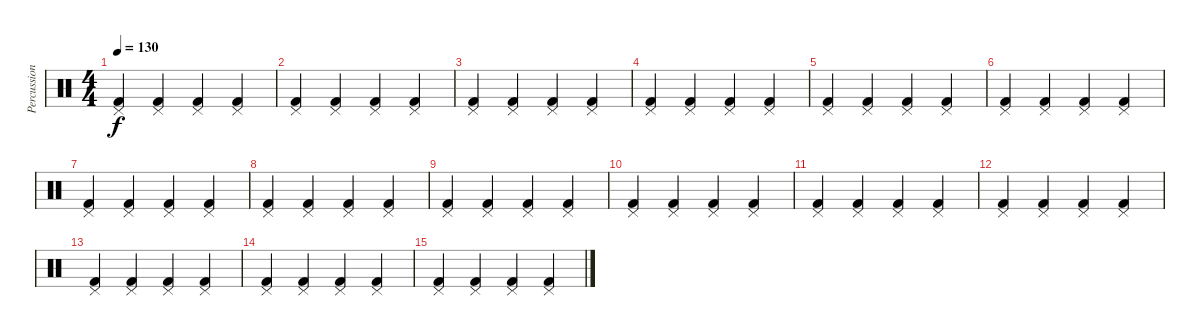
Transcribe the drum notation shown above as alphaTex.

\track ("Percussion" "Percussion") {instrument percussion}
\staff {score}
\articulation defaults
\ts (4 4)
\tempo 130
\clef neutral
\ks c
("Kick (hit) 2" "Pedal Hi-Hat (hit)").4{dy f} ("Kick (hit) 2" "Pedal Hi-Hat (hit)").4 ("Kick (hit) 2" "Pedal Hi-Hat (hit)").4 ("Kick (hit) 2" "Pedal Hi-Hat (hit)").4 |
("Kick (hit) 2" "Pedal Hi-Hat (hit)").4 ("Kick (hit) 2" "Pedal Hi-Hat (hit)").4 ("Kick (hit) 2" "Pedal Hi-Hat (hit)").4 ("Kick (hit) 2" "Pedal Hi-Hat (hit)").4 |
("Kick (hit) 2" "Pedal Hi-Hat (hit)").4 ("Kick (hit) 2" "Pedal Hi-Hat (hit)").4 ("Kick (hit) 2" "Pedal Hi-Hat (hit)").4 ("Kick (hit) 2" "Pedal Hi-Hat (hit)").4 |
("Kick (hit) 2" "Pedal Hi-Hat (hit)").4 ("Kick (hit) 2" "Pedal Hi-Hat (hit)").4 ("Kick (hit) 2" "Pedal Hi-Hat (hit)").4 ("Kick (hit) 2" "Pedal Hi-Hat (hit)").4 |
("Kick (hit) 2" "Pedal Hi-Hat (hit)").4 ("Kick (hit) 2" "Pedal Hi-Hat (hit)").4 ("Kick (hit) 2" "Pedal Hi-Hat (hit)").4 ("Kick (hit) 2" "Pedal Hi-Hat (hit)").4 |
("Kick (hit) 2" "Pedal Hi-Hat (hit)").4 ("Kick (hit) 2" "Pedal Hi-Hat (hit)").4 ("Kick (hit) 2" "Pedal Hi-Hat (hit)").4 ("Kick (hit) 2" "Pedal Hi-Hat (hit)").4 |
("Kick (hit) 2" "Pedal Hi-Hat (hit)").4 ("Kick (hit) 2" "Pedal Hi-Hat (hit)").4 ("Kick (hit) 2" "Pedal Hi-Hat (hit)").4 ("Kick (hit) 2" "Pedal Hi-Hat (hit)").4 |
("Kick (hit) 2" "Pedal Hi-Hat (hit)").4 ("Kick (hit) 2" "Pedal Hi-Hat (hit)").4 ("Kick (hit) 2" "Pedal Hi-Hat (hit)").4 ("Kick (hit) 2" "Pedal Hi-Hat (hit)").4 |
("Kick (hit) 2" "Pedal Hi-Hat (hit)").4 ("Kick (hit) 2" "Pedal Hi-Hat (hit)").4 ("Kick (hit) 2" "Pedal Hi-Hat (hit)").4 ("Kick (hit) 2" "Pedal Hi-Hat (hit)").4 |
("Kick (hit) 2" "Pedal Hi-Hat (hit)").4 ("Kick (hit) 2" "Pedal Hi-Hat (hit)").4 ("Kick (hit) 2" "Pedal Hi-Hat (hit)").4 ("Kick (hit) 2" "Pedal Hi-Hat (hit)").4 |
("Kick (hit) 2" "Pedal Hi-Hat (hit)").4 ("Kick (hit) 2" "Pedal Hi-Hat (hit)").4 ("Kick (hit) 2" "Pedal Hi-Hat (hit)").4 ("Kick (hit) 2" "Pedal Hi-Hat (hit)").4 |
("Kick (hit) 2" "Pedal Hi-Hat (hit)").4 ("Kick (hit) 2" "Pedal Hi-Hat (hit)").4 ("Kick (hit) 2" "Pedal Hi-Hat (hit)").4 ("Kick (hit) 2" "Pedal Hi-Hat (hit)").4 |
("Kick (hit) 2" "Pedal Hi-Hat (hit)").4 ("Kick (hit) 2" "Pedal Hi-Hat (hit)").4 ("Kick (hit) 2" "Pedal Hi-Hat (hit)").4 ("Kick (hit) 2" "Pedal Hi-Hat (hit)").4 |
("Kick (hit) 2" "Pedal Hi-Hat (hit)").4 ("Kick (hit) 2" "Pedal Hi-Hat (hit)").4 ("Kick (hit) 2" "Pedal Hi-Hat (hit)").4 ("Kick (hit) 2" "Pedal Hi-Hat (hit)").4 |
("Kick (hit) 2" "Pedal Hi-Hat (hit)").4 ("Kick (hit) 2" "Pedal Hi-Hat (hit)").4 ("Kick (hit) 2" "Pedal Hi-Hat (hit)").4 ("Kick (hit) 2" "Pedal Hi-Hat (hit)").4
